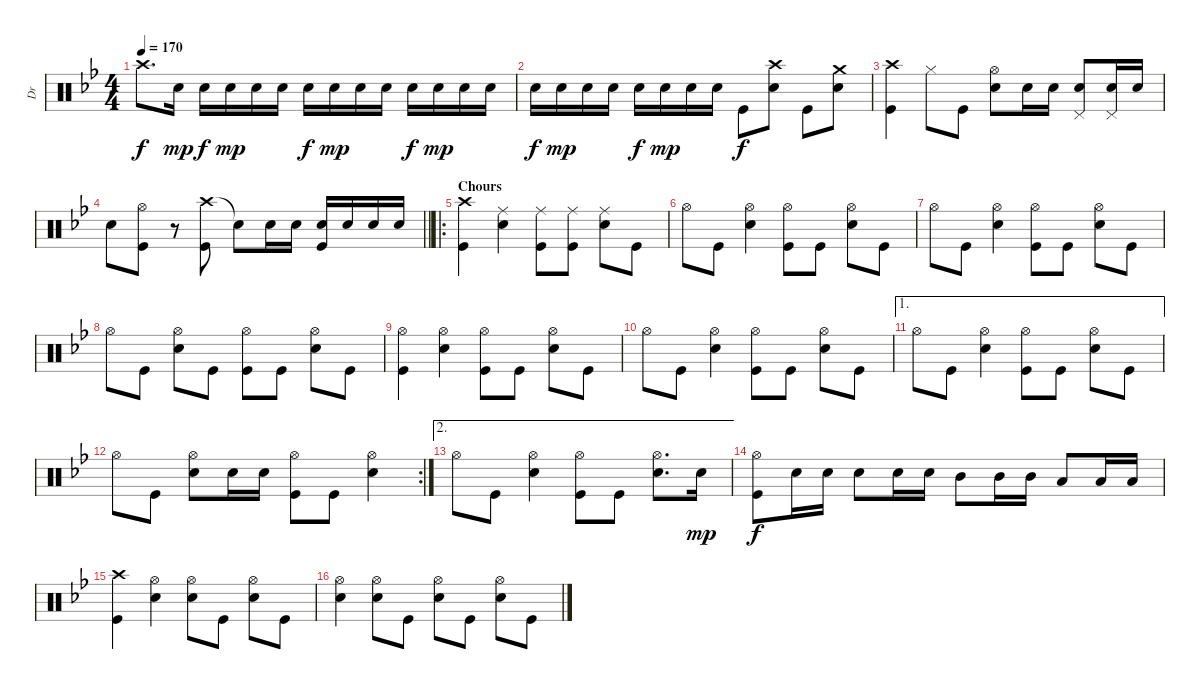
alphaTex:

\track ("Dr" "Dr") {instrument percussion}
\staff {score}
\articulation defaults
\ts (4 4)
\tempo 170
\clef neutral
\ks bb "Crash high (hit)".8{d dy f} "Electric Snare (hit)".16{dy mp} "Electric Snare (hit)".16{dy f} "Electric Snare (hit)".16{dy mp} "Electric Snare (hit)".16 "Electric Snare (hit)".16 "Electric Snare (hit)".16{dy f} "Electric Snare (hit)".16{dy mp} "Electric Snare (hit)".16 "Electric Snare (hit)".16 "Electric Snare (hit)".16{dy f} "Electric Snare (hit)".16{dy mp} "Electric Snare (hit)".16 "Electric Snare (hit)".16
|
"Electric Snare (hit)".16{dy f} "Electric Snare (hit)".16{dy mp} "Electric Snare (hit)".16 "Electric Snare (hit)".16 "Electric Snare (hit)".16{dy f} "Electric Snare (hit)".16{dy mp} "Electric Snare (hit)".16 "Electric Snare (hit)".16 "Kick (hit)".8{dy f} ("Crash high (hit)" "Electric Snare (hit)").8 "Kick (hit)".8 ("Crash medium (hit)" "Electric Snare (hit)").8 |
("Crash high (hit)" "Kick (hit)").4 "Hi-Hat (closed)".8 "Kick (hit)".8 ("Hi-Hat (open)" "Electric Snare (hit)").8 "Electric Snare (hit)".16 "Electric Snare (hit)".16 ("Electric Snare (hit)" "Pedal Hi-Hat (hit)").8 ("Electric Snare (hit)" "Pedal Hi-Hat (hit)").16 "Electric Snare (hit)".16 |
\barLineRight lightlight "Electric Snare (hit)".8
("Hi-Hat (open)" "Kick (hit)").8 r.8 ("Crash high (hit)" "Kick (hit)").8 "Snare (hit)"{t}.8 "Electric Snare (hit)".16 "Electric Snare (hit)".16 ("Electric Snare (hit)" "Kick (hit)").16 "Electric Snare (hit)".16 "Electric Snare (hit)".16 "Electric Snare (hit)".16 |
\ro
\section ("" "Chours")
("Crash high (hit)" "Kick (hit)").4 ("Ride (middle)" "Electric Snare (hit)").4 ("Ride (middle)" "Kick (hit)").8 ("Ride (middle)" "Kick (hit)").8 ("Ride (middle)" "Electric Snare (hit)").8 "Kick (hit)".8 |
"Hi-Hat (open)".8 "Kick (hit)".8 ("Hi-Hat (open)" "Electric Snare (hit)").4 ("Hi-Hat (open)" "Kick (hit)").8 "Kick (hit)".8 ("Hi-Hat (open)" "Electric Snare (hit)").8 "Kick (hit)".8 |
"Hi-Hat (open)".8 "Kick (hit)".8 ("Hi-Hat (open)" "Electric Snare (hit)").4 ("Hi-Hat (open)" "Kick (hit)").8 "Kick (hit)".8 ("Hi-Hat (open)" "Electric Snare (hit)").8 "Kick (hit)".8 |
"Hi-Hat (open)".8 "Kick (hit)".8 ("Hi-Hat (open)" "Electric Snare (hit)").8 "Kick (hit)".8 ("Hi-Hat (open)" "Kick (hit)").8 "Kick (hit)".8 ("Hi-Hat (open)" "Electric Snare (hit)").8 "Kick (hit)".8 |
("Hi-Hat (open)" "Kick (hit)").4 ("Hi-Hat (open)" "Electric Snare (hit)").4 ("Hi-Hat (open)" "Kick (hit)").8 "Kick (hit)".8 ("Hi-Hat (open)" "Electric Snare (hit)").8 "Kick (hit)".8 |
"Hi-Hat (open)".8 "Kick (hit)".8 ("Hi-Hat (open)" "Electric Snare (hit)").4 ("Hi-Hat (open)" "Kick (hit)").8 "Kick (hit)".8 ("Hi-Hat (open)" "Electric Snare (hit)").8 "Kick (hit)".8 |
\ae 1 "Hi-Hat (open)".8 "Kick (hit)".8
("Hi-Hat (open)" "Electric Snare (hit)").4 ("Hi-Hat (open)" "Kick (hit)").8 "Kick (hit)".8 ("Hi-Hat (open)" "Electric Snare (hit)").8 "Kick (hit)".8 |
\rc 2 "Hi-Hat (open)".8 "Kick (hit)".8
("Hi-Hat (open)" "Electric Snare (hit)").8 "Electric Snare (hit)".16 "Electric Snare (hit)".16 ("Hi-Hat (open)" "Kick (hit)").8 "Kick (hit)".8 ("Hi-Hat (open)" "Electric Snare (hit)").4 |
\ae 2 "Hi-Hat (open)".8 "Kick (hit)".8
("Hi-Hat (open)" "Electric Snare (hit)").4 ("Hi-Hat (open)" "Kick (hit)").8 "Kick (hit)".8 ("Hi-Hat (open)" "Electric Snare (hit)").8{d} "Electric Snare (hit)".16{dy mp} |
("Hi-Hat (open)" "Kick (hit)").8{dy f} "Electric Snare (hit)".16 "Electric Snare (hit)".16 "Electric Snare (hit)".8 "Electric Snare (hit)".16 "Electric Snare (hit)".16 "Mid Tom (hit)".8 "Mid Tom (hit)".16 "Mid Tom (hit)".16 "Low Floor Tom (hit)".8 "Low Floor Tom (hit)".16 "Low Floor Tom (hit)".16 |
("Crash high (hit)" "Kick (hit)").4 ("Hi-Hat (open)" "Electric Snare (hit)").4 ("Hi-Hat (open)" "Electric Snare (hit)").8 "Kick (hit)".8 ("Hi-Hat (open)" "Electric Snare (hit)").8 "Kick (hit)".8 |
("Hi-Hat (open)" "Electric Snare (hit)").4 ("Hi-Hat (open)" "Electric Snare (hit)").8 "Kick (hit)".8 ("Hi-Hat (open)" "Electric Snare (hit)").8 "Kick (hit)".8 ("Hi-Hat (open)" "Electric Snare (hit)").8 "Kick (hit)".8
